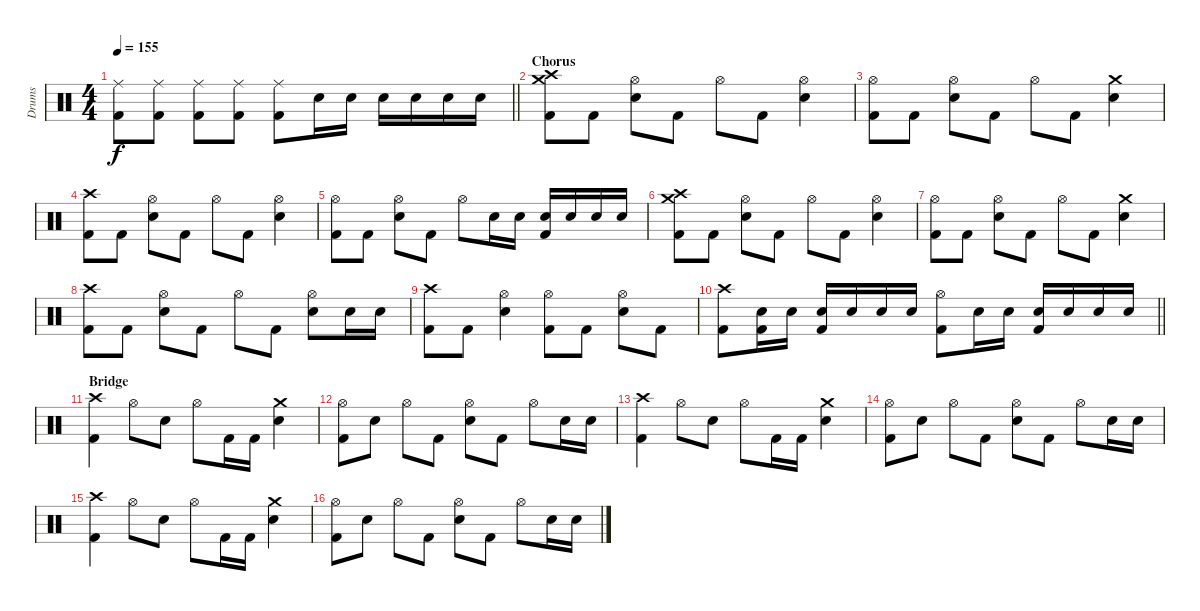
\track ("Drums" "Drums") {instrument percussion}
\staff {score}
\articulation defaults
\ts (4 4)
\tempo 155
\clef neutral
\barLineRight lightlight
\ks c
("Kick (hit) 2" "Ride (middle)").8{dy f} ("Kick (hit) 2" "Ride (middle)").8 ("Kick (hit) 2" "Ride (middle)").8 ("Kick (hit) 2" "Ride (middle)").8 ("Kick (hit) 2" "Ride (middle)").8 "Electric Snare (hit)".16 "Electric Snare (hit)".16 "Electric Snare (hit)".16 "Electric Snare (hit)".16 "Electric Snare (hit)".16 "Electric Snare (hit)".16 |
\section ("" "Chorus")
("Kick (hit) 2" "Crash medium (hit)" "Crash high (hit)").8 "Kick (hit) 2".8 ("Electric Snare (hit)" "Hi-Hat (open)").8 "Kick (hit) 2".8 "Hi-Hat (open)".8 "Kick (hit) 2".8 ("Electric Snare (hit)" "Hi-Hat (open)").4 |
("Kick (hit) 2" "Hi-Hat (open)").8 "Kick (hit) 2".8 ("Electric Snare (hit)" "Hi-Hat (open)").8 "Kick (hit) 2".8 "Hi-Hat (open)".8 "Kick (hit) 2".8 ("Electric Snare (hit)" "Crash medium (hit)").4 |
("Kick (hit) 2" "Crash high (hit)").8 "Kick (hit) 2".8 ("Electric Snare (hit)" "Hi-Hat (open)").8 "Kick (hit) 2".8 "Hi-Hat (open)".8 "Kick (hit) 2".8 ("Electric Snare (hit)" "Hi-Hat (open)").4 |
("Kick (hit) 2" "Hi-Hat (open)").8 "Kick (hit) 2".8 ("Electric Snare (hit)" "Hi-Hat (open)").8 "Kick (hit) 2".8 "Hi-Hat (open)".8 "Electric Snare (hit)".16 "Electric Snare (hit)".16 ("Kick (hit) 2" "Electric Snare (hit)").16 "Electric Snare (hit)".16 "Electric Snare (hit)".16 "Electric Snare (hit)".16 |
("Kick (hit) 2" "Crash medium (hit)" "Crash high (hit)").8 "Kick (hit) 2".8 ("Electric Snare (hit)" "Hi-Hat (open)").8 "Kick (hit) 2".8 "Hi-Hat (open)".8 "Kick (hit) 2".8 ("Electric Snare (hit)" "Hi-Hat (open)").4 |
("Kick (hit) 2" "Hi-Hat (open)").8 "Kick (hit) 2".8 ("Electric Snare (hit)" "Hi-Hat (open)").8 "Kick (hit) 2".8 "Hi-Hat (open)".8 "Kick (hit) 2".8 ("Electric Snare (hit)" "Crash medium (hit)").4 |
("Kick (hit) 2" "Crash high (hit)").8 "Kick (hit) 2".8 ("Electric Snare (hit)" "Hi-Hat (open)").8 "Kick (hit) 2".8 "Hi-Hat (open)".8 "Kick (hit) 2".8 ("Electric Snare (hit)" "Hi-Hat (open)").8 "Electric Snare (hit)".16 "Electric Snare (hit)".16 |
("Kick (hit) 2" "Crash high (hit)").8 "Kick (hit) 2".8 ("Electric Snare (hit)" "Hi-Hat (open)").4 ("Kick (hit) 2" "Hi-Hat (open)").8 "Kick (hit) 2".8 ("Electric Snare (hit)" "Hi-Hat (open)").8 "Kick (hit) 2".8 |
\barLineRight lightlight
("Kick (hit) 2" "Crash high (hit)").8 ("Kick (hit) 2" "Electric Snare (hit)").16 "Electric Snare (hit)".16 ("Kick (hit) 2" "Electric Snare (hit)").16 "Electric Snare (hit)".16 "Electric Snare (hit)".16 "Electric Snare (hit)".16 ("Kick (hit) 2" "Hi-Hat (open)").8 "Electric Snare (hit)".16 "Electric Snare (hit)".16 ("Kick (hit) 2" "Electric Snare (hit)").16 "Electric Snare (hit)".16 "Electric Snare (hit)".16 "Electric Snare (hit)".16 |
\section ("" "Bridge")
("Kick (hit) 2" "Crash high (hit)").4 "Hi-Hat (open)".8 "Electric Snare (hit)".8 "Hi-Hat (open)".8 "Kick (hit) 2".16 "Kick (hit) 2".16 ("Electric Snare (hit)" "Crash medium (hit)").4 |
("Kick (hit) 2" "Hi-Hat (open)").8 "Electric Snare (hit)".8 "Hi-Hat (open)".8 "Kick (hit) 2".8 ("Electric Snare (hit)" "Hi-Hat (open)").8 "Kick (hit) 2".8 "Hi-Hat (open)".8 "Electric Snare (hit)".16 "Electric Snare (hit)".16 |
("Kick (hit) 2" "Crash high (hit)").4 "Hi-Hat (open)".8 "Electric Snare (hit)".8 "Hi-Hat (open)".8 "Kick (hit) 2".16 "Kick (hit) 2".16 ("Electric Snare (hit)" "Crash medium (hit)").4 |
("Kick (hit) 2" "Hi-Hat (open)").8 "Electric Snare (hit)".8 "Hi-Hat (open)".8 "Kick (hit) 2".8 ("Electric Snare (hit)" "Hi-Hat (open)").8 "Kick (hit) 2".8 "Hi-Hat (open)".8 "Electric Snare (hit)".16 "Electric Snare (hit)".16 |
("Kick (hit) 2" "Crash high (hit)").4 "Hi-Hat (open)".8 "Electric Snare (hit)".8 "Hi-Hat (open)".8 "Kick (hit) 2".16 "Kick (hit) 2".16 ("Electric Snare (hit)" "Crash medium (hit)").4 |
("Kick (hit) 2" "Hi-Hat (open)").8 "Electric Snare (hit)".8 "Hi-Hat (open)".8 "Kick (hit) 2".8 ("Electric Snare (hit)" "Hi-Hat (open)").8 "Kick (hit) 2".8 "Hi-Hat (open)".8 "Electric Snare (hit)".16 "Electric Snare (hit)".16
